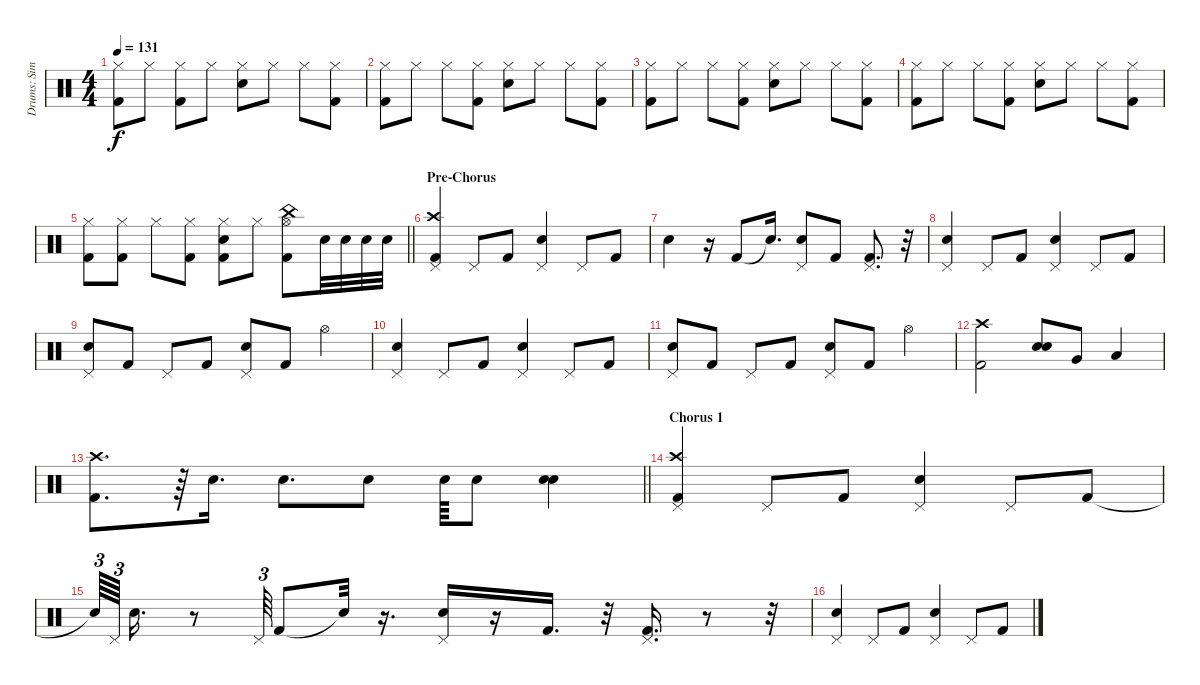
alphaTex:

\track ("Drums: Simon Kirke" "Drums: Sim") {instrument percussion}
\staff {score}
\articulation defaults
\ts (4 4)
\tempo 131
\clef neutral
\ks c
("Hi-Hat (closed)" "Kick (hit) 2").8{dy f} "Hi-Hat (closed)".8 ("Hi-Hat (closed)" "Kick (hit) 2").8 "Hi-Hat (closed)".8 ("Hi-Hat (closed)" "Electric Snare (hit)").8 "Hi-Hat (closed)".8 "Hi-Hat (closed)".8 ("Hi-Hat (closed)" "Kick (hit) 2").8 |
("Hi-Hat (closed)" "Kick (hit) 2").8 "Hi-Hat (closed)".8 "Hi-Hat (closed)".8 ("Hi-Hat (closed)" "Kick (hit) 2").8 ("Hi-Hat (closed)" "Electric Snare (hit)").8 "Hi-Hat (closed)".8 "Hi-Hat (closed)".8 ("Hi-Hat (closed)" "Kick (hit) 2").8 |
("Hi-Hat (closed)" "Kick (hit) 2").8 "Hi-Hat (closed)".8 "Hi-Hat (closed)".8 ("Hi-Hat (closed)" "Kick (hit) 2").8 ("Hi-Hat (closed)" "Electric Snare (hit)").8 "Hi-Hat (closed)".8 "Hi-Hat (closed)".8 ("Hi-Hat (closed)" "Kick (hit) 2").8 |
("Hi-Hat (closed)" "Kick (hit) 2").8 "Hi-Hat (closed)".8 "Hi-Hat (closed)".8 ("Hi-Hat (closed)" "Kick (hit) 2").8 ("Hi-Hat (closed)" "Electric Snare (hit)").8 "Hi-Hat (closed)".8 "Hi-Hat (closed)".8 ("Hi-Hat (closed)" "Kick (hit) 2").8 |
\barLineRight lightlight
("Hi-Hat (closed)" "Kick (hit) 2").8 ("Hi-Hat (closed)" "Kick (hit) 2").8 "Hi-Hat (closed)".8 ("Hi-Hat (closed)" "Kick (hit) 2").8 ("Electric Snare (hit)" "Kick (hit) 2" "Hi-Hat (closed)").8 "Hi-Hat (closed)".8 ("Kick (hit) 2" "Hi-Hat (open)" "China (hit)").8 "Electric Snare (hit)".32 "Electric Snare (hit)".32 "Electric Snare (hit)".32 "Electric Snare (hit)".32 |
\section ("" "Pre-Chorus")
("Crash high (hit)" "Kick (hit) 2" "Pedal Hi-Hat (hit)").4 "Pedal Hi-Hat (hit)".8 "Kick (hit) 2".8 ("Pedal Hi-Hat (hit)" "Electric Snare (hit)").4 "Pedal Hi-Hat (hit)".8 "Kick (hit) 2".8 |
"Electric Snare (hit)".4 r.16 "Kick (hit) 2".8 "Snare (hit)"{t}.16{d} ("Pedal Hi-Hat (hit)" "Electric Snare (hit)").8 "Kick (hit) 2".8 ("Pedal Hi-Hat (hit)" "Kick (hit) 2").8{d} r.32 |
("Electric Snare (hit)" "Pedal Hi-Hat (hit)").4 "Pedal Hi-Hat (hit)".8 "Kick (hit) 2".8 ("Electric Snare (hit)" "Pedal Hi-Hat (hit)").4 "Pedal Hi-Hat (hit)".8 "Kick (hit) 2".8 |
("Pedal Hi-Hat (hit)" "Electric Snare (hit)").8 "Kick (hit) 2".8 "Pedal Hi-Hat (hit)".8 "Kick (hit) 2".8 ("Pedal Hi-Hat (hit)" "Electric Snare (hit)").8 "Kick (hit) 2".8 "Hi-Hat (open)".4 |
("Electric Snare (hit)" "Pedal Hi-Hat (hit)").4 "Pedal Hi-Hat (hit)".8 "Kick (hit) 2".8 ("Electric Snare (hit)" "Pedal Hi-Hat (hit)").4 "Pedal Hi-Hat (hit)".8 "Kick (hit) 2".8 |
("Pedal Hi-Hat (hit)" "Electric Snare (hit)").8 "Kick (hit) 2".8 "Pedal Hi-Hat (hit)".8 "Kick (hit) 2".8 ("Pedal Hi-Hat (hit)" "Electric Snare (hit)").8 "Kick (hit) 2".8 "Hi-Hat (open)".4 |
("Crash high (hit)" "Kick (hit) 2").2 ("Electric Snare (hit)" "Electric Snare (hit)").8 "Very Low Tom (hit)".8 "Low Floor Tom (hit)".4 |
\barLineRight lightlight
("Crash high (hit)" "Kick (hit) 2").8{d} r.64 "Electric Snare (hit)".16{d} "Electric Snare (hit)".8{d} "Electric Snare (hit)".8 "Electric Snare (hit)".64 "Electric Snare (hit)".8 ("Electric Snare (hit)" "Electric Snare (hit)").4 |
\section ("" "Chorus 1")
("Crash high (hit)" "Kick (hit) 2" "Pedal Hi-Hat (hit)").4 "Pedal Hi-Hat (hit)".8 "Kick (hit) 2".8 ("Pedal Hi-Hat (hit)" "Electric Snare (hit)").4 "Pedal Hi-Hat (hit)".8 "Kick (hit) 2".8 |
"Snare (hit)"{t}.64{tu (3 2)} "Pedal Hi-Hat (hit)".64{tu (3 2) beam splitsecondary} "Electric Snare (hit)".16{d} r.8 "Pedal Hi-Hat (hit)".64{tu (3 2)} "Kick (hit) 2".8 "Snare (hit)"{t}.32 r.16{d} ("Pedal Hi-Hat (hit)" "Electric Snare (hit)").16 r.16 "Kick (hit) 2".16{d} r.32 ("Pedal Hi-Hat (hit)" "Kick (hit) 2").16{d} r.8 r.32 |
("Electric Snare (hit)" "Pedal Hi-Hat (hit)").4 "Pedal Hi-Hat (hit)".8 "Kick (hit) 2".8 ("Electric Snare (hit)" "Pedal Hi-Hat (hit)").4 "Pedal Hi-Hat (hit)".8 "Kick (hit) 2".8
